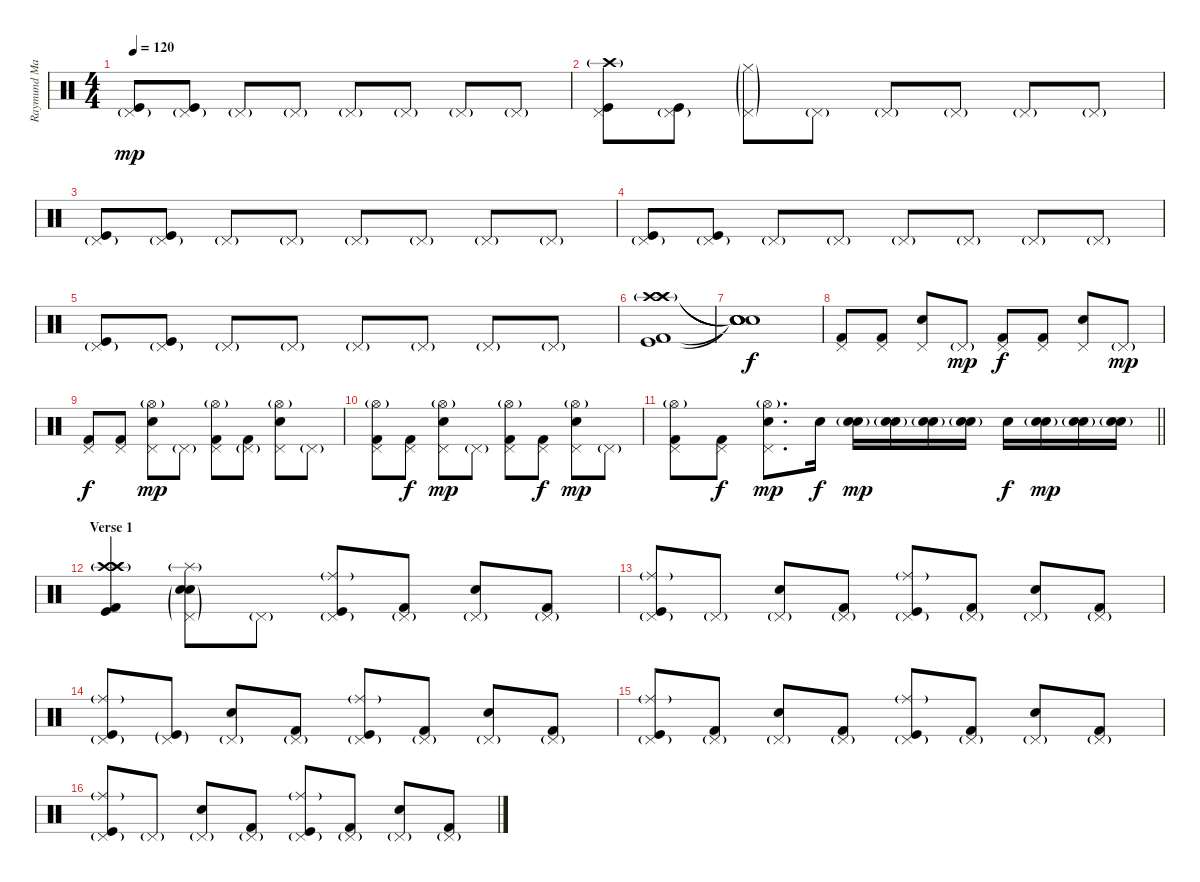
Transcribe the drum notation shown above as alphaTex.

\track ("Raymund Marasigan(Drums)" "Raymund Ma") {instrument percussion}
\staff {score}
\articulation defaults
\ts (4 4)
\tempo 120
\clef neutral
\ks c
("Pedal Hi-Hat (hit)"{g} "Kick (hit)").8{dy mp} ("Pedal Hi-Hat (hit)"{g} "Kick (hit)").8 "Pedal Hi-Hat (hit)"{g}.8 "Pedal Hi-Hat (hit)"{g}.8 "Pedal Hi-Hat (hit)"{g}.8 "Pedal Hi-Hat (hit)"{g}.8 "Pedal Hi-Hat (hit)"{g}.8 "Pedal Hi-Hat (hit)"{g}.8 |
("Pedal Hi-Hat (hit)" "Crash high (hit)"{g} "Kick (hit)").8 ("Pedal Hi-Hat (hit)"{g} "Kick (hit)").8 ("Pedal Hi-Hat (hit)"{g} "Hi-Hat (closed)"{g}).8 "Pedal Hi-Hat (hit)"{g}.8 "Pedal Hi-Hat (hit)"{g}.8 "Pedal Hi-Hat (hit)"{g}.8 "Pedal Hi-Hat (hit)"{g}.8 "Pedal Hi-Hat (hit)"{g}.8 |
("Pedal Hi-Hat (hit)"{g} "Kick (hit)").8 ("Pedal Hi-Hat (hit)"{g} "Kick (hit)").8 "Pedal Hi-Hat (hit)"{g}.8 "Pedal Hi-Hat (hit)"{g}.8 "Pedal Hi-Hat (hit)"{g}.8 "Pedal Hi-Hat (hit)"{g}.8 "Pedal Hi-Hat (hit)"{g}.8 "Pedal Hi-Hat (hit)"{g}.8 |
("Pedal Hi-Hat (hit)"{g} "Kick (hit)").8 ("Pedal Hi-Hat (hit)"{g} "Kick (hit)").8 "Pedal Hi-Hat (hit)"{g}.8 "Pedal Hi-Hat (hit)"{g}.8 "Pedal Hi-Hat (hit)"{g}.8 "Pedal Hi-Hat (hit)"{g}.8 "Pedal Hi-Hat (hit)"{g}.8 "Pedal Hi-Hat (hit)"{g}.8 |
("Pedal Hi-Hat (hit)"{g} "Kick (hit)").8 ("Pedal Hi-Hat (hit)"{g} "Kick (hit)").8 "Pedal Hi-Hat (hit)"{g}.8 "Pedal Hi-Hat (hit)"{g}.8 "Pedal Hi-Hat (hit)"{g}.8 "Pedal Hi-Hat (hit)"{g}.8 "Pedal Hi-Hat (hit)"{g}.8 "Pedal Hi-Hat (hit)"{g}.8 |
("Crash high (hit)"{g} "Crash high (hit)"{g} "Crash high (hit)"{g} "Kick (hit) 2" "Kick (hit)").1 |
("Snare (hit)"{t} "Snare (hit)"{t} "Snare (hit)"{t} "Snare (hit)"{t} "Snare (hit)"{t}).1{dy f} |
("Pedal Hi-Hat (hit)" "Kick (hit) 2").8 ("Pedal Hi-Hat (hit)" "Kick (hit) 2").8 ("Pedal Hi-Hat (hit)" "Electric Snare (hit)").8 "Pedal Hi-Hat (hit)"{g}.8{dy mp} ("Pedal Hi-Hat (hit)" "Kick (hit) 2").8{dy f} ("Pedal Hi-Hat (hit)" "Kick (hit) 2").8 ("Pedal Hi-Hat (hit)" "Electric Snare (hit)").8 "Pedal Hi-Hat (hit)"{g}.8{dy mp} |
("Pedal Hi-Hat (hit)" "Kick (hit) 2").8{dy f} ("Pedal Hi-Hat (hit)" "Kick (hit) 2").8 ("Pedal Hi-Hat (hit)" "Electric Snare (hit)" "Hi-Hat (open)"{g}).8{dy mp} "Pedal Hi-Hat (hit)"{g}.8 ("Pedal Hi-Hat (hit)" "Kick (hit) 2" "Hi-Hat (open)"{g}).8 ("Pedal Hi-Hat (hit)"{g} "Kick (hit) 2").8 ("Pedal Hi-Hat (hit)" "Electric Snare (hit)" "Hi-Hat (open)"{g}).8 "Pedal Hi-Hat (hit)"{g}.8 |
("Pedal Hi-Hat (hit)" "Kick (hit) 2" "Hi-Hat (open)"{g}).8 ("Pedal Hi-Hat (hit)" "Kick (hit) 2").8{dy f} ("Pedal Hi-Hat (hit)" "Electric Snare (hit)" "Hi-Hat (open)"{g}).8{dy mp} "Pedal Hi-Hat (hit)"{g}.8 ("Pedal Hi-Hat (hit)" "Kick (hit) 2" "Hi-Hat (open)"{g}).8 ("Pedal Hi-Hat (hit)" "Kick (hit) 2").8{dy f} ("Pedal Hi-Hat (hit)" "Electric Snare (hit)" "Hi-Hat (open)"{g}).8{dy mp} "Pedal Hi-Hat (hit)"{g}.8 |
\barLineRight lightlight
("Pedal Hi-Hat (hit)" "Kick (hit) 2" "Hi-Hat (open)"{g}).8 ("Pedal Hi-Hat (hit)" "Kick (hit) 2").8{dy f} ("Pedal Hi-Hat (hit)" "Electric Snare (hit)" "Hi-Hat (open)"{g}).8{d dy mp} "Electric Snare (hit)".16{dy f} ("Electric Snare (hit)" "Snare (hit) 2"{g}).16{dy mp} ("Electric Snare (hit)" "Snare (hit) 2"{g}).16 ("Electric Snare (hit)" "Snare (hit) 2"{g}).16 ("Electric Snare (hit)" "Snare (hit) 2"{g}).16 "Electric Snare (hit)".16{dy f} ("Electric Snare (hit)" "Snare (hit) 2"{g}).16{dy mp} ("Electric Snare (hit)" "Snare (hit) 2"{g}).16 ("Electric Snare (hit)" "Snare (hit) 2"{g}).16 |
\section ("" "Verse 1")
("Crash high (hit)"{g} "Crash high (hit)"{g} "Crash high (hit)"{g} "Kick (hit) 2" "Kick (hit)").4 ("Pedal Hi-Hat (hit)"{g} "Electric Snare (hit)" "Snare (hit) 2"{g} "Splash (hit)"{g}).8 "Pedal Hi-Hat (hit)"{g}.8 ("Pedal Hi-Hat (hit)"{g} "Kick (hit)" "Ride (middle)"{g}).8 ("Pedal Hi-Hat (hit)"{g} "Kick (hit) 2").8 ("Pedal Hi-Hat (hit)"{g} "Electric Snare (hit)").8 ("Pedal Hi-Hat (hit)"{g} "Kick (hit) 2").8 |
("Pedal Hi-Hat (hit)"{g} "Kick (hit)" "Ride (middle)"{g}).8 "Pedal Hi-Hat (hit)"{g}.8 ("Pedal Hi-Hat (hit)"{g} "Electric Snare (hit)").8 ("Pedal Hi-Hat (hit)"{g} "Kick (hit) 2").8 ("Pedal Hi-Hat (hit)"{g} "Kick (hit)" "Ride (middle)"{g}).8 ("Pedal Hi-Hat (hit)"{g} "Kick (hit) 2").8 ("Pedal Hi-Hat (hit)"{g} "Electric Snare (hit)").8 ("Pedal Hi-Hat (hit)"{g} "Kick (hit) 2").8 |
("Pedal Hi-Hat (hit)"{g} "Kick (hit)" "Ride (middle)"{g}).8 ("Pedal Hi-Hat (hit)"{g} "Kick (hit)"{g}).8 ("Pedal Hi-Hat (hit)"{g} "Electric Snare (hit)").8 ("Pedal Hi-Hat (hit)"{g} "Kick (hit) 2").8 ("Pedal Hi-Hat (hit)"{g} "Kick (hit)" "Ride (middle)"{g}).8 ("Pedal Hi-Hat (hit)"{g} "Kick (hit) 2").8 ("Pedal Hi-Hat (hit)"{g} "Electric Snare (hit)").8 ("Pedal Hi-Hat (hit)"{g} "Kick (hit) 2").8 |
("Pedal Hi-Hat (hit)"{g} "Kick (hit)" "Ride (middle)"{g}).8 ("Pedal Hi-Hat (hit)"{g} "Kick (hit) 2").8 ("Pedal Hi-Hat (hit)"{g} "Electric Snare (hit)").8 ("Pedal Hi-Hat (hit)"{g} "Kick (hit) 2").8 ("Pedal Hi-Hat (hit)"{g} "Kick (hit)" "Ride (middle)"{g}).8 ("Pedal Hi-Hat (hit)"{g} "Kick (hit) 2").8 ("Pedal Hi-Hat (hit)"{g} "Electric Snare (hit)").8 ("Pedal Hi-Hat (hit)"{g} "Kick (hit) 2").8 |
("Pedal Hi-Hat (hit)"{g} "Kick (hit)" "Ride (middle)"{g}).8 "Pedal Hi-Hat (hit)"{g}.8 ("Pedal Hi-Hat (hit)"{g} "Electric Snare (hit)").8 ("Pedal Hi-Hat (hit)"{g} "Kick (hit) 2").8 ("Pedal Hi-Hat (hit)"{g} "Kick (hit)" "Ride (middle)"{g}).8 ("Pedal Hi-Hat (hit)"{g} "Kick (hit) 2").8 ("Pedal Hi-Hat (hit)"{g} "Electric Snare (hit)").8 ("Pedal Hi-Hat (hit)"{g} "Kick (hit) 2").8
